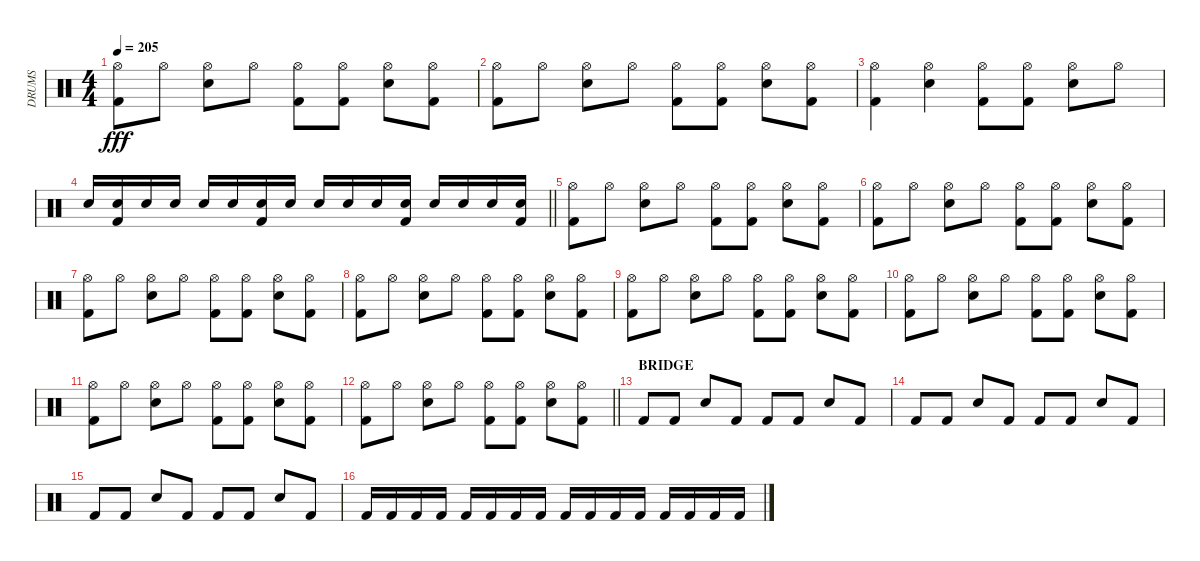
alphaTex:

\track ("DRUMS" "DRUMS") {instrument percussion}
\staff {score}
\articulation defaults
\ts (4 4)
\tempo 205
\clef neutral
\ks c
("Hi-Hat (open)" "Kick (hit) 2").8{dy fff} "Hi-Hat (open)".8 ("Hi-Hat (open)" "Electric Snare (hit)").8 "Hi-Hat (open)".8 ("Hi-Hat (open)" "Kick (hit) 2").8 ("Hi-Hat (open)" "Kick (hit) 2").8 ("Hi-Hat (open)" "Electric Snare (hit)").8 ("Hi-Hat (open)" "Kick (hit) 2").8 |
("Hi-Hat (open)" "Kick (hit) 2").8 "Hi-Hat (open)".8 ("Hi-Hat (open)" "Electric Snare (hit)").8 "Hi-Hat (open)".8 ("Hi-Hat (open)" "Kick (hit) 2").8 ("Hi-Hat (open)" "Kick (hit) 2").8 ("Hi-Hat (open)" "Electric Snare (hit)").8 ("Hi-Hat (open)" "Kick (hit) 2").8 |
("Hi-Hat (open)" "Kick (hit) 2").4 ("Hi-Hat (open)" "Electric Snare (hit)").4 ("Hi-Hat (open)" "Kick (hit) 2").8 ("Hi-Hat (open)" "Kick (hit) 2").8 ("Hi-Hat (open)" "Electric Snare (hit)").8 "Hi-Hat (open)".8 |
\barLineRight lightlight "Electric Snare (hit)".16
("Electric Snare (hit)" "Kick (hit) 2").16 "Electric Snare (hit)".16 "Electric Snare (hit)".16 "Electric Snare (hit)".16 "Electric Snare (hit)".16 ("Electric Snare (hit)" "Kick (hit) 2").16 "Electric Snare (hit)".16 "Electric Snare (hit)".16 "Electric Snare (hit)".16 "Electric Snare (hit)".16 ("Electric Snare (hit)" "Kick (hit) 2").16 "Electric Snare (hit)".16 "Electric Snare (hit)".16 "Electric Snare (hit)".16 ("Electric Snare (hit)" "Kick (hit) 2").16 |
("Hi-Hat (open)" "Kick (hit) 2").8 "Hi-Hat (open)".8 ("Hi-Hat (open)" "Electric Snare (hit)").8 "Hi-Hat (open)".8 ("Hi-Hat (open)" "Kick (hit) 2").8 ("Hi-Hat (open)" "Kick (hit) 2").8 ("Hi-Hat (open)" "Electric Snare (hit)").8 ("Hi-Hat (open)" "Kick (hit) 2").8 |
("Hi-Hat (open)" "Kick (hit) 2").8 "Hi-Hat (open)".8 ("Hi-Hat (open)" "Electric Snare (hit)").8 "Hi-Hat (open)".8 ("Hi-Hat (open)" "Kick (hit) 2").8 ("Hi-Hat (open)" "Kick (hit) 2").8 ("Hi-Hat (open)" "Electric Snare (hit)").8 ("Hi-Hat (open)" "Kick (hit) 2").8 |
("Hi-Hat (open)" "Kick (hit) 2").8 "Hi-Hat (open)".8 ("Hi-Hat (open)" "Electric Snare (hit)").8 "Hi-Hat (open)".8 ("Hi-Hat (open)" "Kick (hit) 2").8 ("Hi-Hat (open)" "Kick (hit) 2").8 ("Hi-Hat (open)" "Electric Snare (hit)").8 ("Hi-Hat (open)" "Kick (hit) 2").8 |
("Hi-Hat (open)" "Kick (hit) 2").8 "Hi-Hat (open)".8 ("Hi-Hat (open)" "Electric Snare (hit)").8 "Hi-Hat (open)".8 ("Hi-Hat (open)" "Kick (hit) 2").8 ("Hi-Hat (open)" "Kick (hit) 2").8 ("Hi-Hat (open)" "Electric Snare (hit)").8 ("Hi-Hat (open)" "Kick (hit) 2").8 |
("Hi-Hat (open)" "Kick (hit) 2").8 "Hi-Hat (open)".8 ("Hi-Hat (open)" "Electric Snare (hit)").8 "Hi-Hat (open)".8 ("Hi-Hat (open)" "Kick (hit) 2").8 ("Hi-Hat (open)" "Kick (hit) 2").8 ("Hi-Hat (open)" "Electric Snare (hit)").8 ("Hi-Hat (open)" "Kick (hit) 2").8 |
("Hi-Hat (open)" "Kick (hit) 2").8 "Hi-Hat (open)".8 ("Hi-Hat (open)" "Electric Snare (hit)").8 "Hi-Hat (open)".8 ("Hi-Hat (open)" "Kick (hit) 2").8 ("Hi-Hat (open)" "Kick (hit) 2").8 ("Hi-Hat (open)" "Electric Snare (hit)").8 ("Hi-Hat (open)" "Kick (hit) 2").8 |
("Hi-Hat (open)" "Kick (hit) 2").8 "Hi-Hat (open)".8 ("Hi-Hat (open)" "Electric Snare (hit)").8 "Hi-Hat (open)".8 ("Hi-Hat (open)" "Kick (hit) 2").8 ("Hi-Hat (open)" "Kick (hit) 2").8 ("Hi-Hat (open)" "Electric Snare (hit)").8 ("Hi-Hat (open)" "Kick (hit) 2").8 |
\barLineRight lightlight
("Hi-Hat (open)" "Kick (hit) 2").8 "Hi-Hat (open)".8 ("Hi-Hat (open)" "Electric Snare (hit)").8 "Hi-Hat (open)".8 ("Hi-Hat (open)" "Kick (hit) 2").8 ("Hi-Hat (open)" "Kick (hit) 2").8 ("Hi-Hat (open)" "Electric Snare (hit)").8 ("Hi-Hat (open)" "Kick (hit) 2").8 |
\section ("" "BRIDGE")
"Kick (hit) 2".8 "Kick (hit) 2".8 "Electric Snare (hit)".8 "Kick (hit) 2".8 "Kick (hit) 2".8 "Kick (hit) 2".8 "Electric Snare (hit)".8 "Kick (hit) 2".8 |
"Kick (hit) 2".8 "Kick (hit) 2".8 "Electric Snare (hit)".8 "Kick (hit) 2".8 "Kick (hit) 2".8 "Kick (hit) 2".8 "Electric Snare (hit)".8 "Kick (hit) 2".8 |
"Kick (hit) 2".8 "Kick (hit) 2".8 "Electric Snare (hit)".8 "Kick (hit) 2".8 "Kick (hit) 2".8 "Kick (hit) 2".8 "Electric Snare (hit)".8 "Kick (hit) 2".8 |
"Kick (hit) 2".16 "Kick (hit) 2".16 "Kick (hit) 2".16 "Kick (hit) 2".16 "Kick (hit) 2".16 "Kick (hit) 2".16 "Kick (hit) 2".16 "Kick (hit) 2".16 "Kick (hit) 2".16 "Kick (hit) 2".16 "Kick (hit) 2".16 "Kick (hit) 2".16 "Kick (hit) 2".16 "Kick (hit) 2".16 "Kick (hit) 2".16 "Kick (hit) 2".16
